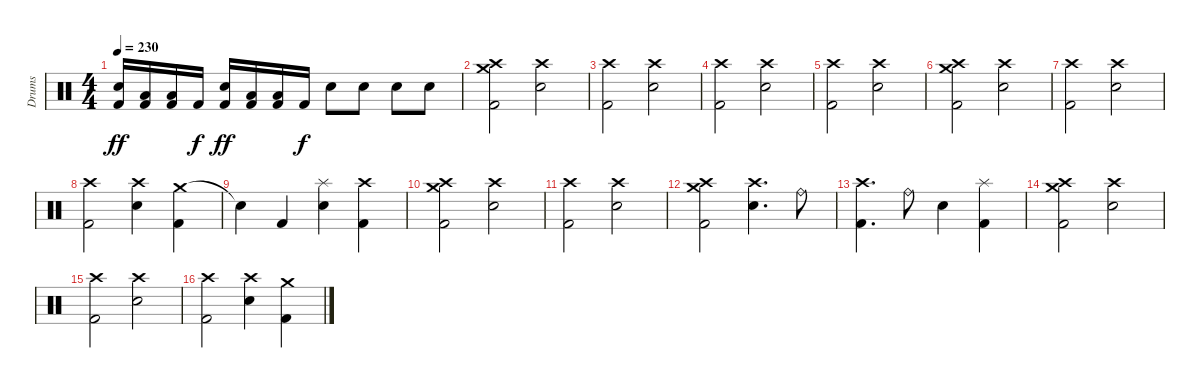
\track ("Drums" "Drums") {instrument percussion}
\staff {score}
\articulation defaults
\ts (4 4)
\tempo 230
\clef neutral
\ks c
("Electric Snare (hit)" "Kick (hit) 2").16{dy ff} ("Low Tom (hit)" "Kick (hit) 2").16 ("Low Tom (hit)" "Kick (hit) 2").16 "Kick (hit) 2".16{dy f} ("Electric Snare (hit)" "Kick (hit) 2").16{dy ff} ("Low Tom (hit)" "Kick (hit) 2").16 ("Low Tom (hit)" "Kick (hit) 2").16 "Kick (hit) 2".16{dy f} "Electric Snare (hit)".8 "Electric Snare (hit)".8 "Electric Snare (hit)".8 "Electric Snare (hit)".8 |
("Crash medium (hit)" "Crash high (hit)" "Kick (hit) 2").2 ("Crash high (hit)" "Electric Snare (hit)").2 |
("Crash high (hit)" "Kick (hit) 2").2 ("Crash high (hit)" "Electric Snare (hit)").2 |
("Crash high (hit)" "Kick (hit) 2").2 ("Crash high (hit)" "Electric Snare (hit)").2 |
("Crash high (hit)" "Kick (hit) 2").2 ("Crash high (hit)" "Electric Snare (hit)").2 |
("Crash medium (hit)" "Crash high (hit)" "Kick (hit) 2").2 ("Crash high (hit)" "Electric Snare (hit)").2 |
("Crash high (hit)" "Kick (hit) 2").2 ("Crash high (hit)" "Electric Snare (hit)").2 |
("Crash high (hit)" "Kick (hit) 2").2 ("Crash high (hit)" "Electric Snare (hit)").4 ("Crash medium (hit)" "Kick (hit) 2").4 |
"Snare (hit)"{t}.4 "Kick (hit) 2".4 ("Splash (hit)" "Electric Snare (hit)").4 ("Crash high (hit)" "Kick (hit) 2").4 |
("Crash medium (hit)" "Crash high (hit)" "Kick (hit) 2").2 ("Crash high (hit)" "Electric Snare (hit)").2 |
("Crash high (hit)" "Kick (hit) 2").2 ("Crash high (hit)" "Electric Snare (hit)").2 |
("Crash medium (hit)" "Crash high (hit)" "Kick (hit) 2").2 ("Crash high (hit)" "Electric Snare (hit)").4{d} "Ride (bell)".8 |
("Crash high (hit)" "Kick (hit) 2").4{d} "Ride (bell)".8 "Electric Snare (hit)".4 ("Splash (hit)" "Kick (hit) 2").4 |
("Crash medium (hit)" "Crash high (hit)" "Kick (hit) 2").2 ("Crash high (hit)" "Electric Snare (hit)").2 |
("Crash high (hit)" "Kick (hit) 2").2 ("Crash high (hit)" "Electric Snare (hit)").2 |
("Crash high (hit)" "Kick (hit) 2").2 ("Crash high (hit)" "Electric Snare (hit)").4 ("Crash medium (hit)" "Kick (hit) 2").4
